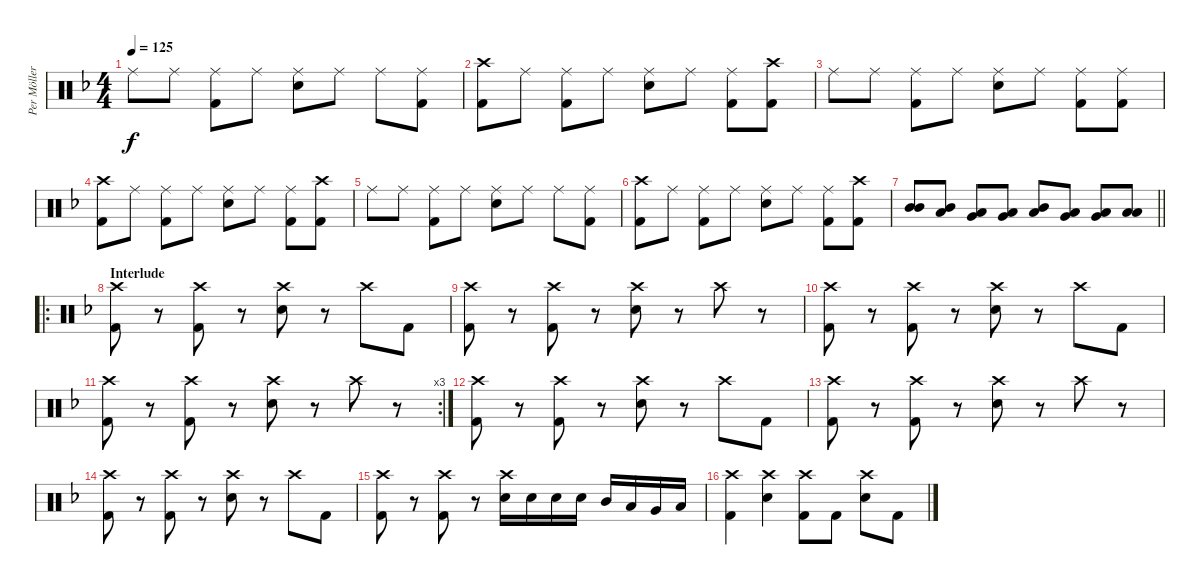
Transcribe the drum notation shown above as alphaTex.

\track ("Per Möller Jensen" "Per Möller") {instrument percussion}
\staff {score}
\articulation defaults
\ts (4 4)
\tempo 125
\clef neutral
\ks dminor "Ride (middle)".8{dy f} "Ride (middle)".8
("Ride (middle)" "Kick (hit) 2").8 "Ride (middle)".8 ("Ride (middle)" "Electric Snare (hit)").8 "Ride (middle)".8 "Ride (middle)".8 ("Ride (middle)" "Kick (hit) 2").8 |
("Crash high (hit)" "Kick (hit) 2").8 "Ride (middle)".8 ("Ride (middle)" "Kick (hit) 2").8 "Ride (middle)".8 ("Ride (middle)" "Electric Snare (hit)").8 "Ride (middle)".8 ("Ride (middle)" "Kick (hit) 2").8 ("Crash high (hit)" "Kick (hit) 2").8 |
"Ride (middle)".8 "Ride (middle)".8 ("Ride (middle)" "Kick (hit) 2").8 "Ride (middle)".8 ("Ride (middle)" "Electric Snare (hit)").8 "Ride (middle)".8 ("Ride (middle)" "Kick (hit) 2").8 ("Ride (middle)" "Kick (hit) 2").8 |
("Crash high (hit)" "Kick (hit) 2").8 "Ride (middle)".8 ("Ride (middle)" "Kick (hit) 2").8 "Ride (middle)".8 ("Ride (middle)" "Electric Snare (hit)").8 "Ride (middle)".8 ("Ride (middle)" "Kick (hit) 2").8 ("Crash high (hit)" "Kick (hit) 2").8 |
"Ride (middle)".8 "Ride (middle)".8 ("Ride (middle)" "Kick (hit) 2").8 "Ride (middle)".8 ("Ride (middle)" "Electric Snare (hit)").8 "Ride (middle)".8 "Ride (middle)".8 ("Ride (middle)" "Kick (hit) 2").8 |
("Crash high (hit)" "Kick (hit) 2").8 "Ride (middle)".8 ("Ride (middle)" "Kick (hit) 2").8 "Ride (middle)".8 ("Ride (middle)" "Electric Snare (hit)").8 "Ride (middle)".8 ("Ride (middle)" "Kick (hit) 2").8 ("Crash high (hit)" "Kick (hit) 2").8 |
\barLineRight lightlight
("Mid Tom (hit)" "Mid Tom (hit)").8 ("Mid Tom (hit)" "Low Tom (hit)").8 ("Low Tom (hit)" "Very Low Tom (hit)").8 ("Very Low Tom (hit)" "Low Floor Tom (hit)").8 ("Mid Tom (hit)" "Low Tom (hit)").8 ("Low Tom (hit)" "Very Low Tom (hit)").8 ("Very Low Tom (hit)" "Low Floor Tom (hit)").8 ("Low Floor Tom (hit)" "Low Floor Tom (hit)").8 |
\ro
\section ("" "Interlude")
("Crash high (hit)" "Kick (hit) 2").8 r.8 ("Crash high (hit)" "Kick (hit) 2").8 r.8 ("Crash high (hit)" "Electric Snare (hit)").8 r.8 "Crash high (hit)".8 "Kick (hit) 2".8 |
("Crash high (hit)" "Kick (hit) 2").8 r.8 ("Crash high (hit)" "Kick (hit) 2").8 r.8 ("Crash high (hit)" "Electric Snare (hit)").8 r.8 "Crash high (hit)".8 r.8 |
("Crash high (hit)" "Kick (hit) 2").8 r.8 ("Crash high (hit)" "Kick (hit) 2").8 r.8 ("Crash high (hit)" "Electric Snare (hit)").8 r.8 "Crash high (hit)".8 "Kick (hit) 2".8 |
\rc 3
("Crash high (hit)" "Kick (hit) 2").8 r.8 ("Crash high (hit)" "Kick (hit) 2").8 r.8 ("Crash high (hit)" "Electric Snare (hit)").8 r.8 "Crash high (hit)".8 r.8 |
("Crash high (hit)" "Kick (hit) 2").8 r.8 ("Crash high (hit)" "Kick (hit) 2").8 r.8 ("Crash high (hit)" "Electric Snare (hit)").8 r.8 "Crash high (hit)".8 "Kick (hit) 2".8 |
("Crash high (hit)" "Kick (hit) 2").8 r.8 ("Crash high (hit)" "Kick (hit) 2").8 r.8 ("Crash high (hit)" "Electric Snare (hit)").8 r.8 "Crash high (hit)".8 r.8 |
("Crash high (hit)" "Kick (hit) 2").8 r.8 ("Crash high (hit)" "Kick (hit) 2").8 r.8 ("Crash high (hit)" "Electric Snare (hit)").8 r.8 "Crash high (hit)".8 "Kick (hit) 2".8 |
("Crash high (hit)" "Kick (hit) 2").8 r.8 ("Crash high (hit)" "Kick (hit) 2").8 r.8 ("Crash high (hit)" "Electric Snare (hit)").16 "Electric Snare (hit)".16 "Electric Snare (hit)".16 "Electric Snare (hit)".16 "Mid Tom (hit)".16 "Low Tom (hit)".16 "Very Low Tom (hit)".16 "Low Floor Tom (hit)".16 |
("Crash high (hit)" "Kick (hit) 2").4 ("Crash high (hit)" "Electric Snare (hit)").4 ("Crash high (hit)" "Kick (hit) 2").8 "Kick (hit) 2".8 ("Crash high (hit)" "Electric Snare (hit)").8 "Kick (hit) 2".8
